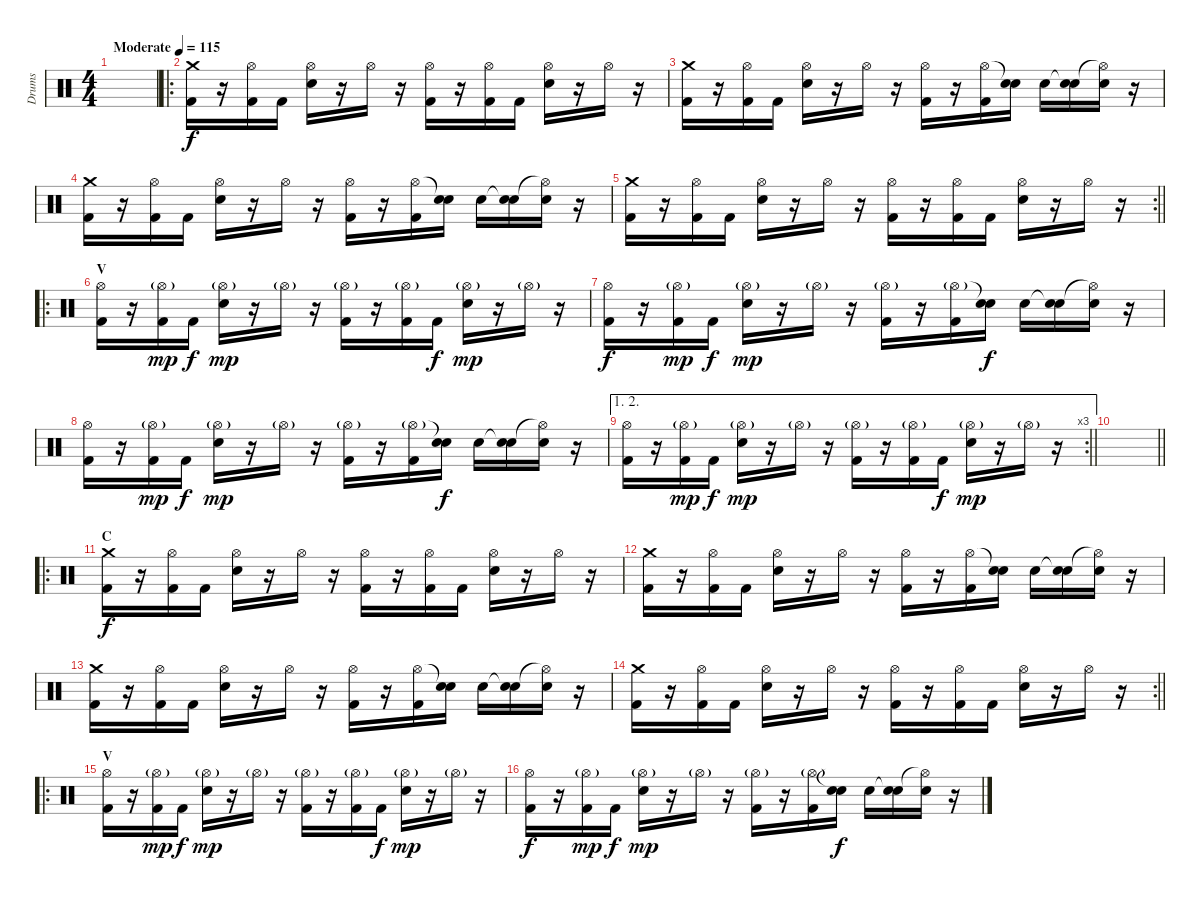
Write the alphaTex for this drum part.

\track ("Drums" "Drums") {instrument percussion}
\staff {score}
\articulation defaults
\ts (4 4)
\tempo (115 "Moderate")
\clef neutral
\ks c
|
\ro
("Crash medium (hit)" "Kick (hit) 2").16 r.16 ("Hi-Hat (open)" "Kick (hit) 2").16 "Kick (hit) 2".16 ("Hi-Hat (open)" "Electric Snare (hit)").16 r.16 "Hi-Hat (open)".16 r.16 ("Hi-Hat (open)" "Kick (hit) 2").16 r.16 ("Hi-Hat (open)" "Kick (hit) 2").16 "Kick (hit) 2".16 ("Hi-Hat (open)" "Electric Snare (hit)").16 r.16 "Hi-Hat (open)".16 r.16 |
("Crash medium (hit)" "Kick (hit) 2").16 r.16 ("Hi-Hat (open)" "Kick (hit) 2").16 "Kick (hit) 2".16 ("Hi-Hat (open)" "Electric Snare (hit)").16 r.16 "Hi-Hat (open)".16 r.16 ("Hi-Hat (open)" "Kick (hit) 2").16 r.16 ("Hi-Hat (open)" "Kick (hit) 2").16 ("Snare (hit)"{t} "Electric Snare (hit)").16 "Electric Snare (hit)".16 ("Snare (hit)"{t} "Electric Snare (hit)").16 ("Hi-Hat (open)"{t} "Electric Snare (hit)").16 r.16 |
("Crash medium (hit)" "Kick (hit) 2").16 r.16 ("Hi-Hat (open)" "Kick (hit) 2").16 "Kick (hit) 2".16 ("Hi-Hat (open)" "Electric Snare (hit)").16 r.16 "Hi-Hat (open)".16 r.16 ("Hi-Hat (open)" "Kick (hit) 2").16 r.16 ("Hi-Hat (open)" "Kick (hit) 2").16 ("Snare (hit)"{t} "Electric Snare (hit)").16 "Electric Snare (hit)".16 ("Snare (hit)"{t} "Electric Snare (hit)").16 ("Hi-Hat (open)"{t} "Electric Snare (hit)").16 r.16 |
\rc 2
\barLineRight lightlight
("Crash medium (hit)" "Kick (hit) 2").16 r.16 ("Hi-Hat (open)" "Kick (hit) 2").16 "Kick (hit) 2".16 ("Hi-Hat (open)" "Electric Snare (hit)").16 r.16 "Hi-Hat (open)".16 r.16 ("Hi-Hat (open)" "Kick (hit) 2").16 r.16 ("Hi-Hat (open)" "Kick (hit) 2").16 "Kick (hit) 2".16 ("Hi-Hat (open)" "Electric Snare (hit)").16 r.16 "Hi-Hat (open)".16 r.16 |
\ro
\section ("" "V")
("Hi-Hat (open)" "Kick (hit) 2").16 r.16 ("Hi-Hat (open)"{g} "Kick (hit) 2").16{dy mp} "Kick (hit) 2".16{dy f} ("Hi-Hat (open)"{g} "Electric Snare (hit)").16{dy mp} r.16 "Hi-Hat (open)"{g}.16 r.16 ("Hi-Hat (open)"{g} "Kick (hit) 2").16 r.16 ("Hi-Hat (open)"{g} "Kick (hit) 2").16 "Kick (hit) 2".16{dy f} ("Hi-Hat (open)"{g} "Electric Snare (hit)").16{dy mp} r.16 "Hi-Hat (open)"{g}.16 r.16 |
("Hi-Hat (open)" "Kick (hit) 2").16{dy f} r.16 ("Hi-Hat (open)"{g} "Kick (hit) 2").16{dy mp} "Kick (hit) 2".16{dy f} ("Hi-Hat (open)"{g} "Electric Snare (hit)").16{dy mp} r.16 "Hi-Hat (open)"{g}.16 r.16 ("Hi-Hat (open)"{g} "Kick (hit) 2").16 r.16 ("Hi-Hat (open)"{g} "Kick (hit) 2").16 ("Snare (hit)"{t} "Electric Snare (hit)").16{dy f} "Electric Snare (hit)".16 ("Snare (hit)"{t} "Electric Snare (hit)").16 ("Hi-Hat (open)"{t} "Electric Snare (hit)").16 r.16 |
("Hi-Hat (open)" "Kick (hit) 2").16 r.16 ("Hi-Hat (open)"{g} "Kick (hit) 2").16{dy mp} "Kick (hit) 2".16{dy f} ("Hi-Hat (open)"{g} "Electric Snare (hit)").16{dy mp} r.16 "Hi-Hat (open)"{g}.16 r.16 ("Hi-Hat (open)"{g} "Kick (hit) 2").16 r.16 ("Hi-Hat (open)"{g} "Kick (hit) 2").16 ("Snare (hit)"{t} "Electric Snare (hit)").16{dy f} "Electric Snare (hit)".16 ("Snare (hit)"{t} "Electric Snare (hit)").16 ("Hi-Hat (open)"{t} "Electric Snare (hit)").16 r.16 |
\ae (1 2)
\rc 3
\barLineRight lightlight
("Hi-Hat (open)" "Kick (hit) 2").16 r.16 ("Hi-Hat (open)"{g} "Kick (hit) 2").16{dy mp} "Kick (hit) 2".16{dy f} ("Hi-Hat (open)"{g} "Electric Snare (hit)").16{dy mp} r.16 "Hi-Hat (open)"{g}.16 r.16 ("Hi-Hat (open)"{g} "Kick (hit) 2").16 r.16 ("Hi-Hat (open)"{g} "Kick (hit) 2").16 "Kick (hit) 2".16{dy f} ("Hi-Hat (open)"{g} "Electric Snare (hit)").16{dy mp} r.16 "Hi-Hat (open)"{g}.16 r.16 |
\barLineRight lightlight
|
\ro
\section ("" "C")
("Crash medium (hit)" "Kick (hit) 2").16{dy f} r.16 ("Hi-Hat (open)" "Kick (hit) 2").16 "Kick (hit) 2".16 ("Hi-Hat (open)" "Electric Snare (hit)").16 r.16 "Hi-Hat (open)".16 r.16 ("Hi-Hat (open)" "Kick (hit) 2").16 r.16 ("Hi-Hat (open)" "Kick (hit) 2").16 "Kick (hit) 2".16 ("Hi-Hat (open)" "Electric Snare (hit)").16 r.16 "Hi-Hat (open)".16 r.16 |
("Crash medium (hit)" "Kick (hit) 2").16 r.16 ("Hi-Hat (open)" "Kick (hit) 2").16 "Kick (hit) 2".16 ("Hi-Hat (open)" "Electric Snare (hit)").16 r.16 "Hi-Hat (open)".16 r.16 ("Hi-Hat (open)" "Kick (hit) 2").16 r.16 ("Hi-Hat (open)" "Kick (hit) 2").16 ("Snare (hit)"{t} "Electric Snare (hit)").16 "Electric Snare (hit)".16 ("Snare (hit)"{t} "Electric Snare (hit)").16 ("Hi-Hat (open)"{t} "Electric Snare (hit)").16 r.16 |
("Crash medium (hit)" "Kick (hit) 2").16 r.16 ("Hi-Hat (open)" "Kick (hit) 2").16 "Kick (hit) 2".16 ("Hi-Hat (open)" "Electric Snare (hit)").16 r.16 "Hi-Hat (open)".16 r.16 ("Hi-Hat (open)" "Kick (hit) 2").16 r.16 ("Hi-Hat (open)" "Kick (hit) 2").16 ("Snare (hit)"{t} "Electric Snare (hit)").16 "Electric Snare (hit)".16 ("Snare (hit)"{t} "Electric Snare (hit)").16 ("Hi-Hat (open)"{t} "Electric Snare (hit)").16 r.16 |
\rc 2
\barLineRight lightlight
("Crash medium (hit)" "Kick (hit) 2").16 r.16 ("Hi-Hat (open)" "Kick (hit) 2").16 "Kick (hit) 2".16 ("Hi-Hat (open)" "Electric Snare (hit)").16 r.16 "Hi-Hat (open)".16 r.16 ("Hi-Hat (open)" "Kick (hit) 2").16 r.16 ("Hi-Hat (open)" "Kick (hit) 2").16 "Kick (hit) 2".16 ("Hi-Hat (open)" "Electric Snare (hit)").16 r.16 "Hi-Hat (open)".16 r.16 |
\ro
\section ("" "V")
("Hi-Hat (open)" "Kick (hit) 2").16 r.16 ("Hi-Hat (open)"{g} "Kick (hit) 2").16{dy mp} "Kick (hit) 2".16{dy f} ("Hi-Hat (open)"{g} "Electric Snare (hit)").16{dy mp} r.16 "Hi-Hat (open)"{g}.16 r.16 ("Hi-Hat (open)"{g} "Kick (hit) 2").16 r.16 ("Hi-Hat (open)"{g} "Kick (hit) 2").16 "Kick (hit) 2".16{dy f} ("Hi-Hat (open)"{g} "Electric Snare (hit)").16{dy mp} r.16 "Hi-Hat (open)"{g}.16 r.16 |
("Hi-Hat (open)" "Kick (hit) 2").16{dy f} r.16 ("Hi-Hat (open)"{g} "Kick (hit) 2").16{dy mp} "Kick (hit) 2".16{dy f} ("Hi-Hat (open)"{g} "Electric Snare (hit)").16{dy mp} r.16 "Hi-Hat (open)"{g}.16 r.16 ("Hi-Hat (open)"{g} "Kick (hit) 2").16 r.16 ("Hi-Hat (open)"{g} "Kick (hit) 2").16 ("Snare (hit)"{t} "Electric Snare (hit)").16{dy f} "Electric Snare (hit)".16 ("Snare (hit)"{t} "Electric Snare (hit)").16 ("Hi-Hat (open)"{t} "Electric Snare (hit)").16 r.16
